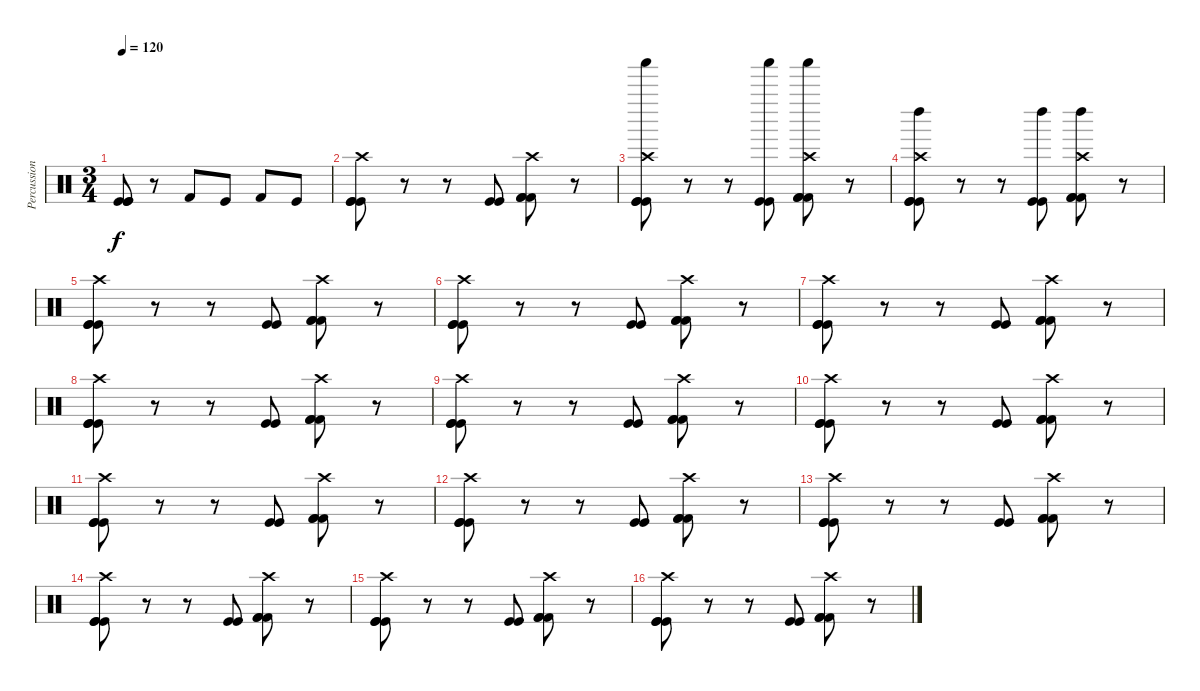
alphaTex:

\track ("Percussions" "Percussion") {instrument percussion}
\staff {score}
\articulation defaults
\ts (3 4)
\tempo 120
\clef neutral
\ks c
("Kick (hit)" "Kick (hit)" "Kick (hit)").8{dy f} r.8 "Kick (hit) 2".8 "Kick (hit)".8 "Kick (hit) 2".8 "Kick (hit)".8 |
("Kick (hit)" "Kick (hit)" "Kick (hit)" "Crash high (hit)").8 r.8 r.8 ("Kick (hit)" "Kick (hit)").8 ("Kick (hit) 2" "Kick (hit) 2" "Kick (hit) 2" "Crash high (hit)").8 r.8 |
("Kick (hit)" "Kick (hit)" "Kick (hit)" "Crash high (hit)" "Shaker (hit)").8 r.8 r.8 ("Kick (hit)" "Kick (hit)" "Shaker (hit)").8 ("Kick (hit) 2" "Kick (hit) 2" "Kick (hit) 2" "Crash high (hit)" "Shaker (hit)").8 r.8 |
("Kick (hit)" "Kick (hit)" "Kick (hit)" "Crash high (hit)" "Left Maraca (hit)").8 r.8 r.8 ("Kick (hit)" "Kick (hit)" "Left Maraca (hit)").8 ("Kick (hit) 2" "Kick (hit) 2" "Kick (hit) 2" "Crash high (hit)" "Left Maraca (hit)").8 r.8 |
("Kick (hit)" "Kick (hit)" "Kick (hit)" "Crash high (hit)").8 r.8 r.8 ("Kick (hit)" "Kick (hit)").8 ("Kick (hit) 2" "Kick (hit) 2" "Kick (hit) 2" "Crash high (hit)").8 r.8 |
("Kick (hit)" "Kick (hit)" "Kick (hit)" "Crash high (hit)").8 r.8 r.8 ("Kick (hit)" "Kick (hit)").8 ("Kick (hit) 2" "Kick (hit) 2" "Kick (hit) 2" "Crash high (hit)").8 r.8 |
("Kick (hit)" "Kick (hit)" "Kick (hit)" "Crash high (hit)").8 r.8 r.8 ("Kick (hit)" "Kick (hit)").8 ("Kick (hit) 2" "Kick (hit) 2" "Kick (hit) 2" "Crash high (hit)").8 r.8 |
("Kick (hit)" "Kick (hit)" "Kick (hit)" "Crash high (hit)").8 r.8 r.8 ("Kick (hit)" "Kick (hit)").8 ("Kick (hit) 2" "Kick (hit) 2" "Kick (hit) 2" "Crash high (hit)").8 r.8 |
("Kick (hit)" "Kick (hit)" "Kick (hit)" "Crash high (hit)").8 r.8 r.8 ("Kick (hit)" "Kick (hit)").8 ("Kick (hit) 2" "Kick (hit) 2" "Kick (hit) 2" "Crash high (hit)").8 r.8 |
("Kick (hit)" "Kick (hit)" "Kick (hit)" "Crash high (hit)").8 r.8 r.8 ("Kick (hit)" "Kick (hit)").8 ("Kick (hit) 2" "Kick (hit) 2" "Kick (hit) 2" "Crash high (hit)").8 r.8 |
("Kick (hit)" "Kick (hit)" "Kick (hit)" "Crash high (hit)").8 r.8 r.8 ("Kick (hit)" "Kick (hit)").8 ("Kick (hit) 2" "Kick (hit) 2" "Kick (hit) 2" "Crash high (hit)").8 r.8 |
("Kick (hit)" "Kick (hit)" "Kick (hit)" "Crash high (hit)").8 r.8 r.8 ("Kick (hit)" "Kick (hit)").8 ("Kick (hit) 2" "Kick (hit) 2" "Kick (hit) 2" "Crash high (hit)").8 r.8 |
("Kick (hit)" "Kick (hit)" "Kick (hit)" "Crash high (hit)").8 r.8 r.8 ("Kick (hit)" "Kick (hit)").8 ("Kick (hit) 2" "Kick (hit) 2" "Kick (hit) 2" "Crash high (hit)").8 r.8 |
("Kick (hit)" "Kick (hit)" "Kick (hit)" "Crash high (hit)").8 r.8 r.8 ("Kick (hit)" "Kick (hit)").8 ("Kick (hit) 2" "Kick (hit) 2" "Kick (hit) 2" "Crash high (hit)").8 r.8 |
("Kick (hit)" "Kick (hit)" "Kick (hit)" "Crash high (hit)").8 r.8 r.8 ("Kick (hit)" "Kick (hit)").8 ("Kick (hit) 2" "Kick (hit) 2" "Kick (hit) 2" "Crash high (hit)").8 r.8 |
("Kick (hit)" "Kick (hit)" "Kick (hit)" "Crash high (hit)").8 r.8 r.8 ("Kick (hit)" "Kick (hit)").8 ("Kick (hit) 2" "Kick (hit) 2" "Kick (hit) 2" "Crash high (hit)").8 r.8
